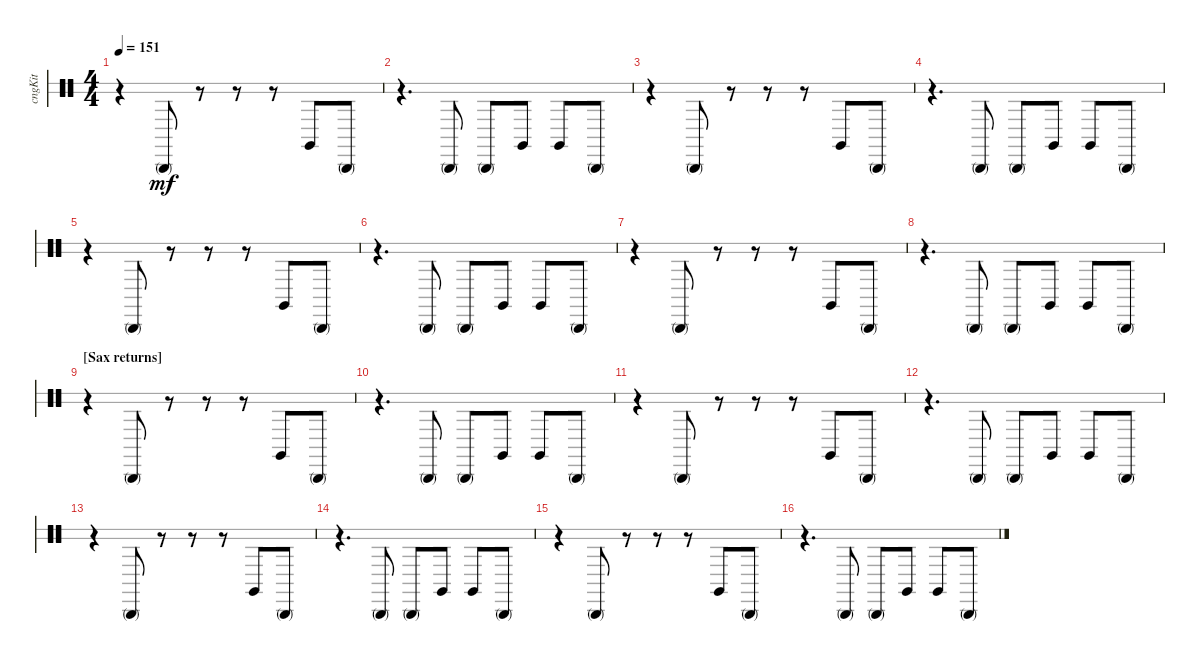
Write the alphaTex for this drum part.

\bracketExtendMode groupsimilarinstruments
\track ("Congas" "cngKit") {instrument percussion}
\staff {score 2}
\articulation defaults
\ts (4 4)
\tempo 151
\clef neutral
\ks aminor
r.4{dy mf} "Conga high (mute)".8 r.8 r.8 r.8 "Conga high (hit)".8 "Conga high (mute)".8 |
r.4{d} "Conga high (mute)".8 "Conga high (mute)".8 "Conga high (hit)".8 "Conga high (hit)".8 "Conga high (mute)".8 |
r.4 "Conga high (mute)".8 r.8 r.8 r.8 "Conga high (hit)".8 "Conga high (mute)".8 |
r.4{d} "Conga high (mute)".8 "Conga high (mute)".8 "Conga high (hit)".8 "Conga high (hit)".8 "Conga high (mute)".8 |
r.4 "Conga high (mute)".8 r.8 r.8 r.8 "Conga high (hit)".8 "Conga high (mute)".8 |
r.4{d} "Conga high (mute)".8 "Conga high (mute)".8 "Conga high (hit)".8 "Conga high (hit)".8 "Conga high (mute)".8 |
r.4 "Conga high (mute)".8 r.8 r.8 r.8 "Conga high (hit)".8 "Conga high (mute)".8 |
r.4{d} "Conga high (mute)".8 "Conga high (mute)".8 "Conga high (hit)".8 "Conga high (hit)".8 "Conga high (mute)".8 |
\section ("" "[Sax returns]")
r.4 "Conga high (mute)".8 r.8 r.8 r.8 "Conga high (hit)".8 "Conga high (mute)".8 |
r.4{d} "Conga high (mute)".8 "Conga high (mute)".8 "Conga high (hit)".8 "Conga high (hit)".8 "Conga high (mute)".8 |
r.4 "Conga high (mute)".8 r.8 r.8 r.8 "Conga high (hit)".8 "Conga high (mute)".8 |
r.4{d} "Conga high (mute)".8 "Conga high (mute)".8 "Conga high (hit)".8 "Conga high (hit)".8 "Conga high (mute)".8 |
r.4 "Conga high (mute)".8 r.8 r.8 r.8 "Conga high (hit)".8 "Conga high (mute)".8 |
r.4{d} "Conga high (mute)".8 "Conga high (mute)".8 "Conga high (hit)".8 "Conga high (hit)".8 "Conga high (mute)".8 |
r.4 "Conga high (mute)".8 r.8 r.8 r.8 "Conga high (hit)".8 "Conga high (mute)".8 |
r.4{d} "Conga high (mute)".8 "Conga high (mute)".8 "Conga high (hit)".8 "Conga high (hit)".8 "Conga high (mute)".8
